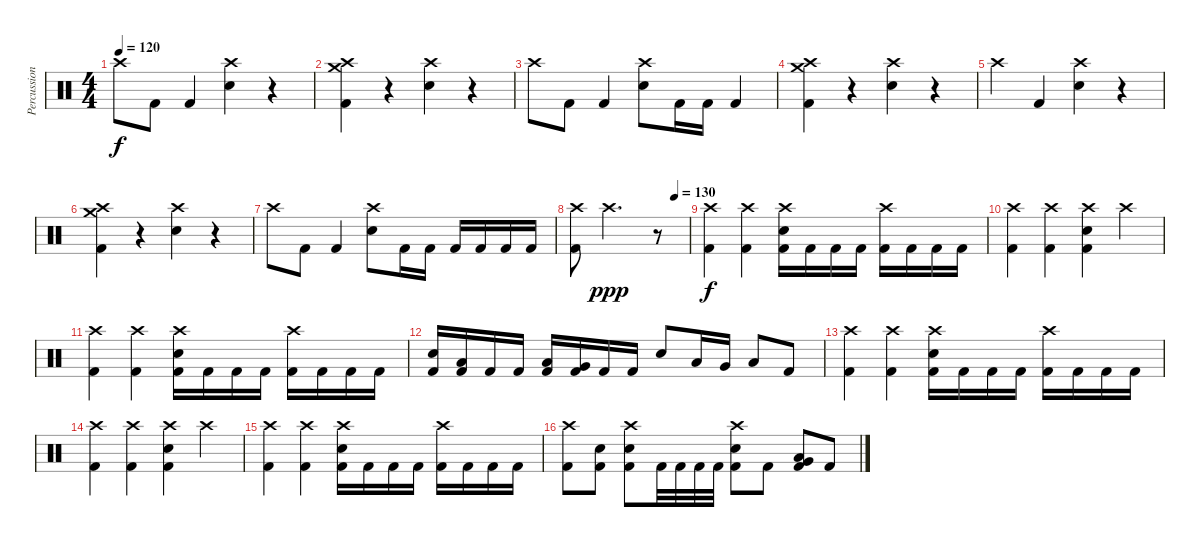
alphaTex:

\track ("Percussion" "Percussion") {instrument percussion}
\staff {score}
\articulation defaults
\ts (4 4)
\tempo 120
\clef neutral
\ks c "Crash high (hit)".8{dy f} "Kick (hit) 2".8 "Kick (hit) 2".4
("Crash high (hit)" "Electric Snare (hit)").4 r.4 |
("Crash medium (hit)" "Crash high (hit)" "Kick (hit) 2").4 r.4 ("Crash high (hit)" "Electric Snare (hit)").4 r.4 |
"Crash high (hit)".8 "Kick (hit) 2".8 "Kick (hit) 2".4 ("Crash high (hit)" "Electric Snare (hit)").8 "Kick (hit) 2".16 "Kick (hit) 2".16 "Kick (hit) 2".4 |
("Crash medium (hit)" "Crash high (hit)" "Kick (hit) 2").4 r.4 ("Crash high (hit)" "Electric Snare (hit)").4 r.4 |
"Crash high (hit)".4 "Kick (hit) 2".4 ("Crash high (hit)" "Electric Snare (hit)").4 r.4 |
("Crash medium (hit)" "Crash high (hit)" "Kick (hit) 2").4 r.4 ("Crash high (hit)" "Electric Snare (hit)").4 r.4 |
"Crash high (hit)".8 "Kick (hit) 2".8 "Kick (hit) 2".4 ("Crash high (hit)" "Electric Snare (hit)").8 "Kick (hit) 2".16 "Kick (hit) 2".16 "Kick (hit) 2".16 "Kick (hit) 2".16 "Kick (hit) 2".16 "Kick (hit) 2".16 |
\tempo (130 0.875)
("Crash high (hit)" "Kick (hit) 2").8 "Crash high (hit)".2{d dy ppp} r.8 |
("Crash high (hit)" "Kick (hit) 2").4{dy f} ("Crash high (hit)" "Kick (hit) 2").4 ("Crash high (hit)" "Electric Snare (hit)" "Kick (hit) 2").16 "Kick (hit) 2".16 "Kick (hit) 2".16 "Kick (hit) 2".16 ("Crash high (hit)" "Kick (hit) 2").16 "Kick (hit) 2".16 "Kick (hit) 2".16 "Kick (hit) 2".16 |
("Crash high (hit)" "Kick (hit) 2").4 ("Crash high (hit)" "Kick (hit) 2").4 ("Crash high (hit)" "Electric Snare (hit)" "Kick (hit) 2").4 "Crash high (hit)".4 |
("Crash high (hit)" "Kick (hit) 2").4 ("Crash high (hit)" "Kick (hit) 2").4 ("Crash high (hit)" "Electric Snare (hit)" "Kick (hit) 2").16 "Kick (hit) 2".16 "Kick (hit) 2".16 "Kick (hit) 2".16 ("Crash high (hit)" "Kick (hit) 2").16 "Kick (hit) 2".16 "Kick (hit) 2".16 "Kick (hit) 2".16 |
("Electric Snare (hit)" "Kick (hit) 2").16 ("Low Floor Tom (hit)" "Kick (hit) 2").16 "Kick (hit) 2".16 "Kick (hit) 2".16 ("Low Tom (hit)" "Kick (hit) 2").16 ("Very Low Tom (hit)" "Kick (hit) 2").16 "Kick (hit) 2".16 "Kick (hit) 2".16 "Electric Snare (hit)".8 "Low Tom (hit)".16 "Very Low Tom (hit)".16 "Low Floor Tom (hit)".8 "Kick (hit) 2".8 |
("Crash high (hit)" "Kick (hit) 2").4 ("Crash high (hit)" "Kick (hit) 2").4 ("Crash high (hit)" "Electric Snare (hit)" "Kick (hit) 2").16 "Kick (hit) 2".16 "Kick (hit) 2".16 "Kick (hit) 2".16 ("Crash high (hit)" "Kick (hit) 2").16 "Kick (hit) 2".16 "Kick (hit) 2".16 "Kick (hit) 2".16 |
("Crash high (hit)" "Kick (hit) 2").4 ("Crash high (hit)" "Kick (hit) 2").4 ("Crash high (hit)" "Electric Snare (hit)" "Kick (hit) 2").4 "Crash high (hit)".4 |
("Crash high (hit)" "Kick (hit) 2").4 ("Crash high (hit)" "Kick (hit) 2").4 ("Crash high (hit)" "Electric Snare (hit)" "Kick (hit) 2").16 "Kick (hit) 2".16 "Kick (hit) 2".16 "Kick (hit) 2".16 ("Crash high (hit)" "Kick (hit) 2").16 "Kick (hit) 2".16 "Kick (hit) 2".16 "Kick (hit) 2".16 |
("Crash high (hit)" "Kick (hit) 2").8 ("Electric Snare (hit)" "Kick (hit) 2").8 ("Crash high (hit)" "Electric Snare (hit)" "Kick (hit) 2").8 "Kick (hit) 2".32 "Kick (hit) 2".32 "Kick (hit) 2".32 "Kick (hit) 2".32 ("Crash high (hit)" "Electric Snare (hit)" "Kick (hit) 2").8 "Kick (hit) 2".8 ("Very Low Tom (hit)" "Low Tom (hit)" "Kick (hit) 2").8 "Kick (hit) 2".8
